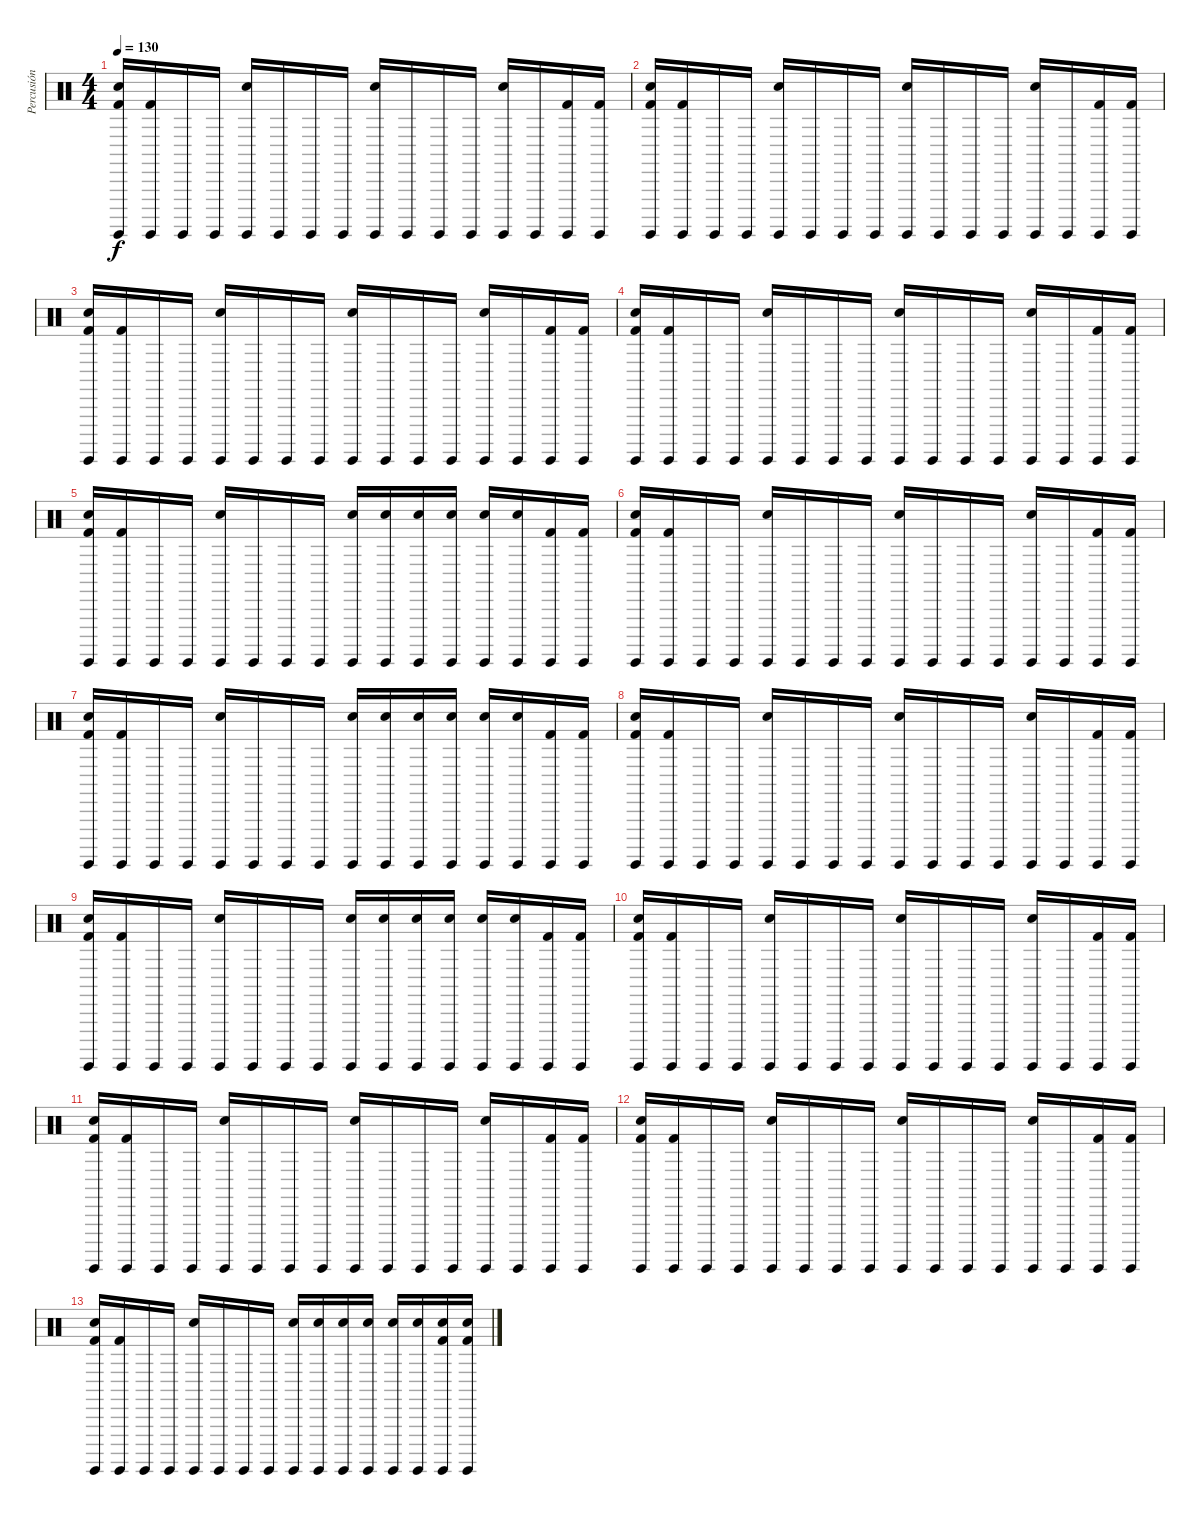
\track ("Percusión" "Percusión") {instrument percussion}
\staff {score}
\articulation defaults
\ts (4 4)
\tempo 130
\clef neutral
\ks c
("Kick (hit) 2" "Electric Snare (hit)" "Surdo (hit)").16{dy f} ("Kick (hit) 2" "Surdo (hit)").16 "Surdo (hit)".16 "Surdo (hit)".16 ("Electric Snare (hit)" "Surdo (hit)").16 "Surdo (hit)".16 "Surdo (hit)".16 "Surdo (hit)".16 ("Electric Snare (hit)" "Surdo (hit)").16 "Surdo (hit)".16 "Surdo (hit)".16 "Surdo (hit)".16 ("Electric Snare (hit)" "Surdo (hit)").16 "Surdo (hit)".16 ("Kick (hit) 2" "Surdo (hit)").16 ("Kick (hit) 2" "Surdo (hit)").16 |
("Kick (hit) 2" "Electric Snare (hit)" "Surdo (hit)").16 ("Kick (hit) 2" "Surdo (hit)").16 "Surdo (hit)".16 "Surdo (hit)".16 ("Electric Snare (hit)" "Surdo (hit)").16 "Surdo (hit)".16 "Surdo (hit)".16 "Surdo (hit)".16 ("Electric Snare (hit)" "Surdo (hit)").16 "Surdo (hit)".16 "Surdo (hit)".16 "Surdo (hit)".16 ("Electric Snare (hit)" "Surdo (hit)").16 "Surdo (hit)".16 ("Kick (hit) 2" "Surdo (hit)").16 ("Kick (hit) 2" "Surdo (hit)").16 |
("Kick (hit) 2" "Electric Snare (hit)" "Surdo (hit)").16 ("Kick (hit) 2" "Surdo (hit)").16 "Surdo (hit)".16 "Surdo (hit)".16 ("Electric Snare (hit)" "Surdo (hit)").16 "Surdo (hit)".16 "Surdo (hit)".16 "Surdo (hit)".16 ("Electric Snare (hit)" "Surdo (hit)").16 "Surdo (hit)".16 "Surdo (hit)".16 "Surdo (hit)".16 ("Electric Snare (hit)" "Surdo (hit)").16 "Surdo (hit)".16 ("Kick (hit) 2" "Surdo (hit)").16 ("Kick (hit) 2" "Surdo (hit)").16 |
("Kick (hit) 2" "Electric Snare (hit)" "Surdo (hit)").16 ("Kick (hit) 2" "Surdo (hit)").16 "Surdo (hit)".16 "Surdo (hit)".16 ("Electric Snare (hit)" "Surdo (hit)").16 "Surdo (hit)".16 "Surdo (hit)".16 "Surdo (hit)".16 ("Electric Snare (hit)" "Surdo (hit)").16 "Surdo (hit)".16 "Surdo (hit)".16 "Surdo (hit)".16 ("Electric Snare (hit)" "Surdo (hit)").16 "Surdo (hit)".16 ("Kick (hit) 2" "Surdo (hit)").16 ("Kick (hit) 2" "Surdo (hit)").16 |
("Kick (hit) 2" "Electric Snare (hit)" "Surdo (hit)").16 ("Kick (hit) 2" "Surdo (hit)").16 "Surdo (hit)".16 "Surdo (hit)".16 ("Electric Snare (hit)" "Surdo (hit)").16 "Surdo (hit)".16 "Surdo (hit)".16 "Surdo (hit)".16 ("Electric Snare (hit)" "Surdo (hit)").16 ("Electric Snare (hit)" "Surdo (hit)").16 ("Electric Snare (hit)" "Surdo (hit)").16 ("Electric Snare (hit)" "Surdo (hit)").16 ("Electric Snare (hit)" "Surdo (hit)").16 ("Electric Snare (hit)" "Surdo (hit)").16 ("Kick (hit) 2" "Surdo (hit)").16 ("Kick (hit) 2" "Surdo (hit)").16 |
("Kick (hit) 2" "Electric Snare (hit)" "Surdo (hit)").16 ("Kick (hit) 2" "Surdo (hit)").16 "Surdo (hit)".16 "Surdo (hit)".16 ("Electric Snare (hit)" "Surdo (hit)").16 "Surdo (hit)".16 "Surdo (hit)".16 "Surdo (hit)".16 ("Electric Snare (hit)" "Surdo (hit)").16 "Surdo (hit)".16 "Surdo (hit)".16 "Surdo (hit)".16 ("Electric Snare (hit)" "Surdo (hit)").16 "Surdo (hit)".16 ("Kick (hit) 2" "Surdo (hit)").16 ("Kick (hit) 2" "Surdo (hit)").16 |
("Kick (hit) 2" "Electric Snare (hit)" "Surdo (hit)").16 ("Kick (hit) 2" "Surdo (hit)").16 "Surdo (hit)".16 "Surdo (hit)".16 ("Electric Snare (hit)" "Surdo (hit)").16 "Surdo (hit)".16 "Surdo (hit)".16 "Surdo (hit)".16 ("Electric Snare (hit)" "Surdo (hit)").16 ("Electric Snare (hit)" "Surdo (hit)").16 ("Electric Snare (hit)" "Surdo (hit)").16 ("Electric Snare (hit)" "Surdo (hit)").16 ("Electric Snare (hit)" "Surdo (hit)").16 ("Electric Snare (hit)" "Surdo (hit)").16 ("Kick (hit) 2" "Surdo (hit)").16 ("Kick (hit) 2" "Surdo (hit)").16 |
("Kick (hit) 2" "Electric Snare (hit)" "Surdo (hit)").16 ("Kick (hit) 2" "Surdo (hit)").16 "Surdo (hit)".16 "Surdo (hit)".16 ("Electric Snare (hit)" "Surdo (hit)").16 "Surdo (hit)".16 "Surdo (hit)".16 "Surdo (hit)".16 ("Electric Snare (hit)" "Surdo (hit)").16 "Surdo (hit)".16 "Surdo (hit)".16 "Surdo (hit)".16 ("Electric Snare (hit)" "Surdo (hit)").16 "Surdo (hit)".16 ("Kick (hit) 2" "Surdo (hit)").16 ("Kick (hit) 2" "Surdo (hit)").16 |
("Kick (hit) 2" "Electric Snare (hit)" "Surdo (hit)").16 ("Kick (hit) 2" "Surdo (hit)").16 "Surdo (hit)".16 "Surdo (hit)".16 ("Electric Snare (hit)" "Surdo (hit)").16 "Surdo (hit)".16 "Surdo (hit)".16 "Surdo (hit)".16 ("Electric Snare (hit)" "Surdo (hit)").16 ("Electric Snare (hit)" "Surdo (hit)").16 ("Electric Snare (hit)" "Surdo (hit)").16 ("Electric Snare (hit)" "Surdo (hit)").16 ("Electric Snare (hit)" "Surdo (hit)").16 ("Electric Snare (hit)" "Surdo (hit)").16 ("Kick (hit) 2" "Surdo (hit)").16 ("Kick (hit) 2" "Surdo (hit)").16 |
("Kick (hit) 2" "Electric Snare (hit)" "Surdo (hit)").16 ("Kick (hit) 2" "Surdo (hit)").16 "Surdo (hit)".16 "Surdo (hit)".16 ("Electric Snare (hit)" "Surdo (hit)").16 "Surdo (hit)".16 "Surdo (hit)".16 "Surdo (hit)".16 ("Electric Snare (hit)" "Surdo (hit)").16 "Surdo (hit)".16 "Surdo (hit)".16 "Surdo (hit)".16 ("Electric Snare (hit)" "Surdo (hit)").16 "Surdo (hit)".16 ("Kick (hit) 2" "Surdo (hit)").16 ("Kick (hit) 2" "Surdo (hit)").16 |
("Kick (hit) 2" "Electric Snare (hit)" "Surdo (hit)").16 ("Kick (hit) 2" "Surdo (hit)").16 "Surdo (hit)".16 "Surdo (hit)".16 ("Electric Snare (hit)" "Surdo (hit)").16 "Surdo (hit)".16 "Surdo (hit)".16 "Surdo (hit)".16 ("Electric Snare (hit)" "Surdo (hit)").16 "Surdo (hit)".16 "Surdo (hit)".16 "Surdo (hit)".16 ("Electric Snare (hit)" "Surdo (hit)").16 "Surdo (hit)".16 ("Kick (hit) 2" "Surdo (hit)").16 ("Kick (hit) 2" "Surdo (hit)").16 |
("Kick (hit) 2" "Electric Snare (hit)" "Surdo (hit)").16 ("Kick (hit) 2" "Surdo (hit)").16 "Surdo (hit)".16 "Surdo (hit)".16 ("Electric Snare (hit)" "Surdo (hit)").16 "Surdo (hit)".16 "Surdo (hit)".16 "Surdo (hit)".16 ("Electric Snare (hit)" "Surdo (hit)").16 "Surdo (hit)".16 "Surdo (hit)".16 "Surdo (hit)".16 ("Electric Snare (hit)" "Surdo (hit)").16 "Surdo (hit)".16 ("Kick (hit) 2" "Surdo (hit)").16 ("Kick (hit) 2" "Surdo (hit)").16 |
("Kick (hit) 2" "Electric Snare (hit)" "Surdo (hit)").16 ("Kick (hit) 2" "Surdo (hit)").16 "Surdo (hit)".16 "Surdo (hit)".16 ("Electric Snare (hit)" "Surdo (hit)").16 "Surdo (hit)".16 "Surdo (hit)".16 "Surdo (hit)".16 ("Electric Snare (hit)" "Surdo (hit)").16 ("Electric Snare (hit)" "Surdo (hit)").16 ("Electric Snare (hit)" "Surdo (hit)").16 ("Electric Snare (hit)" "Surdo (hit)").16 ("Electric Snare (hit)" "Surdo (hit)").16 ("Electric Snare (hit)" "Surdo (hit)").16 ("Kick (hit) 2" "Electric Snare (hit)" "Surdo (hit)").16 ("Kick (hit) 2" "Electric Snare (hit)" "Surdo (hit)").16
